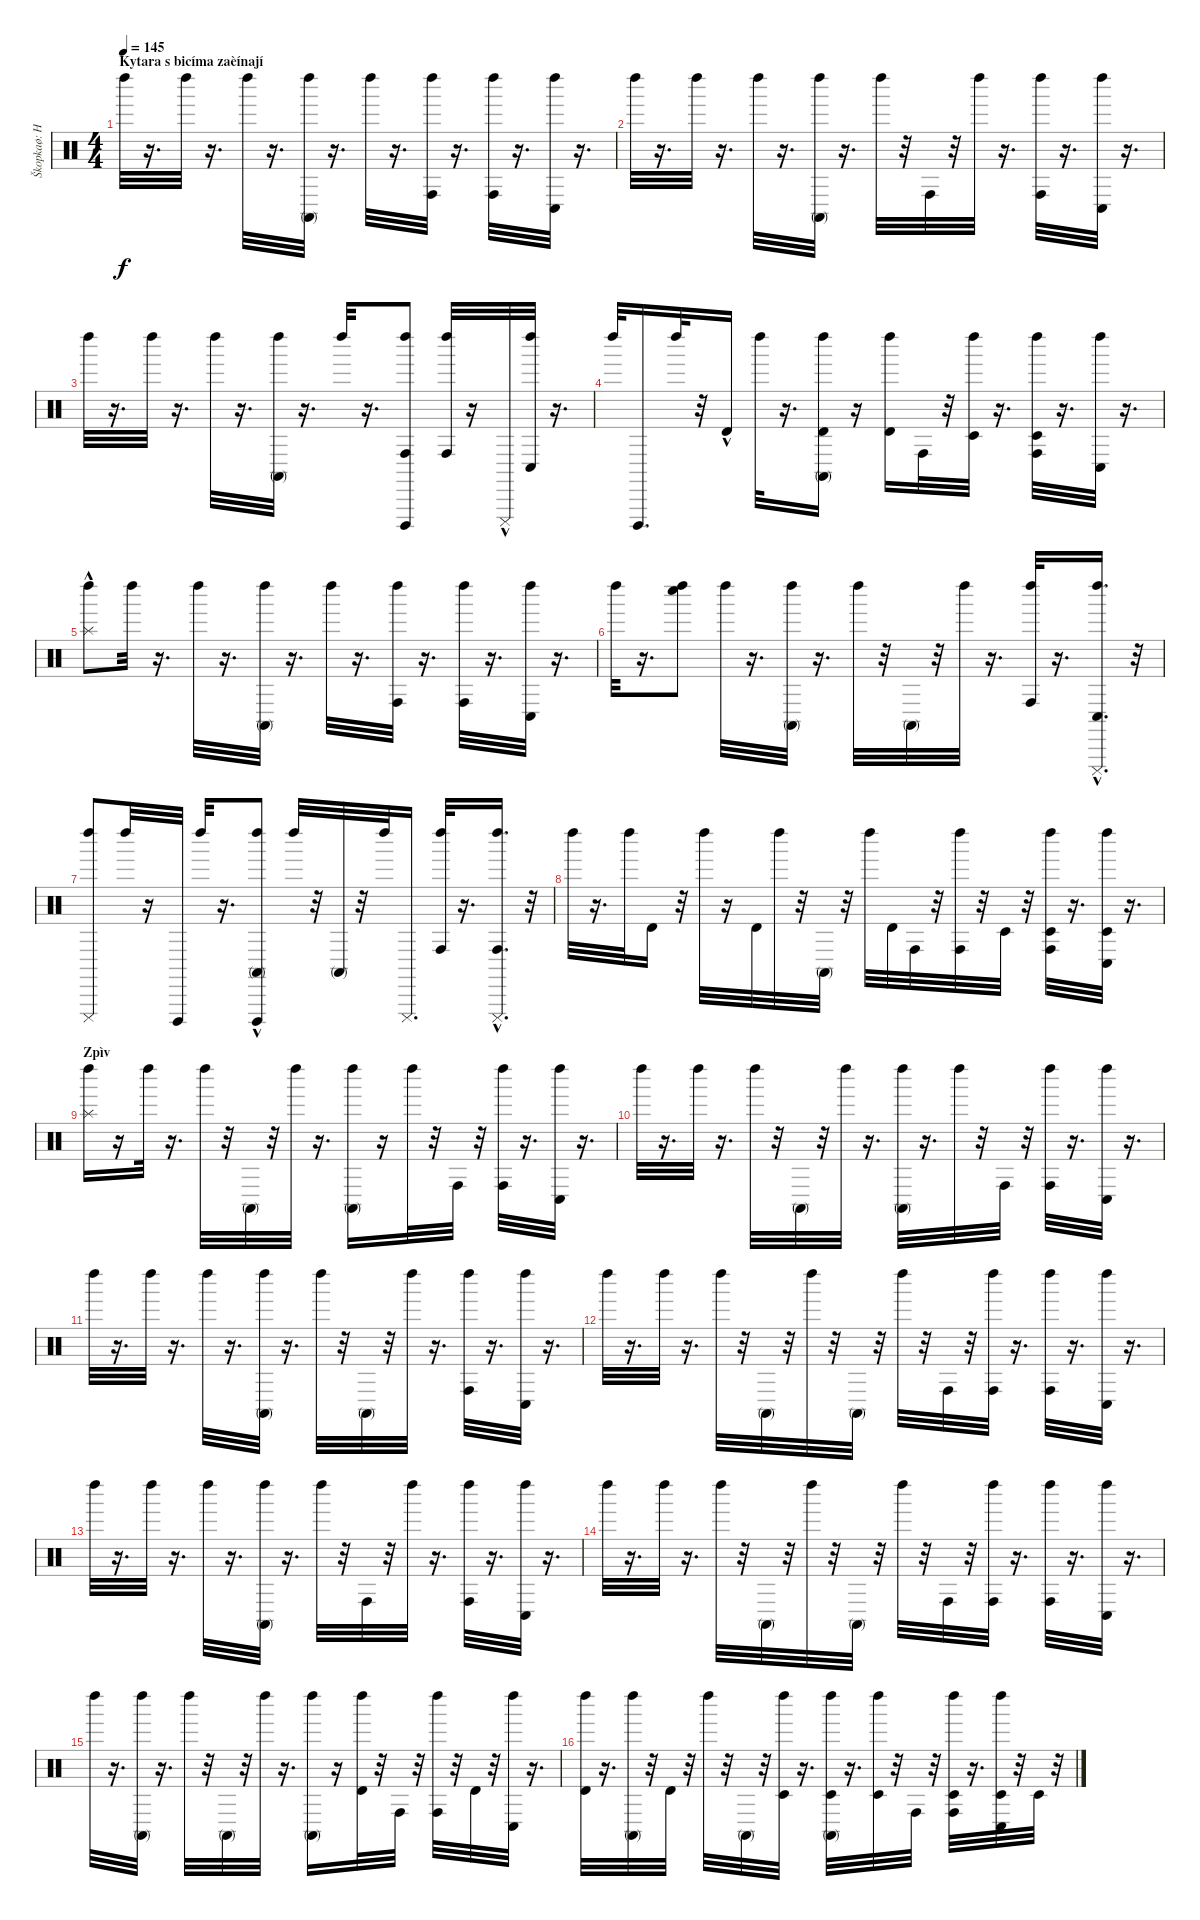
\track ("Škopkaø: Hurvajs" "Škopkaø: H") {instrument percussion}
\staff {score}
\articulation defaults
\ts (4 4)
\section ("" "Kytara s bicíma zaèínají")
\tempo 145
\clef neutral
\ks c "Left Maraca (hit)".32{dy f}
r.16{d} "Left Maraca (hit)".32 r.16{d} "Left Maraca (hit)".32 r.16{d} ("Conga high (mute)" "Left Maraca (hit)").32 r.16{d} "Left Maraca (hit)".32 r.16{d} ("Conga high (hit)" "Left Maraca (hit)").32 r.16{d} ("Conga high (hit)" "Left Maraca (hit)").32 r.16{d} ("Conga low (hit)" "Left Maraca (hit)").32 r.16{d} |
"Left Maraca (hit)".32 r.16{d} "Left Maraca (hit)".32 r.16{d} "Left Maraca (hit)".32 r.16{d} ("Conga high (mute)" "Left Maraca (hit)").32 r.16{d} "Left Maraca (hit)".32 r.32 "Conga high (hit)".32 r.32 "Left Maraca (hit)".32 r.16{d} ("Conga high (hit)" "Left Maraca (hit)").32 r.16{d} ("Conga low (hit)" "Left Maraca (hit)").32 r.16{d} |
"Left Maraca (hit)".32 r.16{d} "Left Maraca (hit)".32 r.16{d} "Left Maraca (hit)".32 r.16{d} ("Conga high (mute)" "Left Maraca (hit)").32 r.16{d} "Left Maraca (hit)".32 r.16{d} ("Conga high (hit)" "Left Maraca (hit)" "Cuica (open)").8 ("Conga high (hit)" "Left Maraca (hit)").32 r.16 "Cuica (mute)"{hac}.32 ("Conga low (hit)" "Left Maraca (hit)").32 r.16{d} |
"Left Maraca (hit)".32 "Cuica (open)".16{d} "Left Maraca (hit)".32 r.32 "Timbale high (hit)"{hac}.16 "Left Maraca (hit)".32 r.16{d} ("Conga high (mute)" "Left Maraca (hit)" "Timbale high (hit)").16 r.16 ("Left Maraca (hit)" "Timbale high (hit)").16 "Conga high (hit)".32 r.32 ("Left Maraca (hit)" "Timbale low (hit)").32 r.16{d} ("Conga high (hit)" "Left Maraca (hit)" "Timbale low (hit)").32 r.16{d} ("Conga low (hit)" "Left Maraca (hit)").32 r.16{d} |
("Left Maraca (hit)" "Splash (hit)"{hac}).8 "Left Maraca (hit)".32 r.16{d} "Left Maraca (hit)".32 r.16{d} ("Conga high (mute)" "Left Maraca (hit)").32 r.16{d} "Left Maraca (hit)".32 r.16{d} ("Conga high (hit)" "Left Maraca (hit)").32 r.16{d} ("Conga high (hit)" "Left Maraca (hit)").32 r.16{d} ("Conga low (hit)" "Left Maraca (hit)").32 r.16{d} |
"Left Maraca (hit)".32 r.16{d} ("Left Maraca (hit)" "Whistle low (hit)").8 "Left Maraca (hit)".32 r.16{d} ("Conga high (mute)" "Left Maraca (hit)").32 r.16{d} "Left Maraca (hit)".32 r.32 "Conga high (mute)".32 r.32 "Left Maraca (hit)".32 r.16{d} ("Conga high (hit)" "Left Maraca (hit)").32 r.16{d} ("Cuica (mute)"{hac} "Conga low (hit)" "Left Maraca (hit)").16{d} r.32 |
("Left Maraca (hit)" "Cuica (mute)").8 "Left Maraca (hit)".32 r.16 "Cuica (open)".32 "Left Maraca (hit)".32 r.16{d} ("Conga high (mute)" "Left Maraca (hit)" "Cuica (open)"{hac}).8 "Left Maraca (hit)".32 r.32 "Conga high (mute)".32 r.32 "Left Maraca (hit)".32 "Cuica (mute)".16{d} ("Conga high (hit)" "Left Maraca (hit)").32 r.16{d} ("Cuica (mute)"{hac} "Conga high (hit)" "Left Maraca (hit)").16{d} r.32 |
"Left Maraca (hit)".32 r.16{d} "Left Maraca (hit)".32 "Timbale high (hit)".16 r.32 "Left Maraca (hit)".32 r.16 "Timbale high (hit)".32 "Left Maraca (hit)".32 r.32 "Conga high (mute)".32 r.32 "Left Maraca (hit)".32 "Timbale high (hit)".32 "Conga high (hit)".32 r.32 ("Conga high (hit)" "Left Maraca (hit)").32 r.32 "Timbale low (hit)".32 r.32 ("Timbale low (hit)" "Conga high (hit)" "Left Maraca (hit)").32 r.16{d} ("Conga low (hit)" "Left Maraca (hit)" "Timbale low (hit)").32 r.16{d} |
\section ("" "Zpìv")
("Left Maraca (hit)" "Splash (hit)").16 r.16 "Left Maraca (hit)".32 r.16{d} "Left Maraca (hit)".32 r.32 "Conga high (mute)".32 r.32 "Left Maraca (hit)".32 r.16{d} ("Conga high (mute)" "Left Maraca (hit)").16 r.16 "Left Maraca (hit)".32 r.32 "Conga high (hit)".32 r.32 ("Conga high (hit)" "Left Maraca (hit)").32 r.16{d} ("Conga low (hit)" "Left Maraca (hit)").32 r.16{d} |
"Left Maraca (hit)".32 r.16{d} "Left Maraca (hit)".32 r.16{d} "Left Maraca (hit)".32 r.32 "Conga high (mute)".32 r.32 "Left Maraca (hit)".32 r.16{d} ("Conga high (mute)" "Left Maraca (hit)").32 r.16{d} "Left Maraca (hit)".32 r.32 "Conga high (hit)".32 r.32 ("Conga high (hit)" "Left Maraca (hit)").32 r.16{d} ("Conga low (hit)" "Left Maraca (hit)").32 r.16{d} |
"Left Maraca (hit)".32 r.16{d} "Left Maraca (hit)".32 r.16{d} "Left Maraca (hit)".32 r.16{d} ("Conga high (mute)" "Left Maraca (hit)").32 r.16{d} "Left Maraca (hit)".32 r.32 "Conga high (mute)".32 r.32 "Left Maraca (hit)".32 r.16{d} ("Conga high (hit)" "Left Maraca (hit)").32 r.16{d} ("Conga low (hit)" "Left Maraca (hit)").32 r.16{d} |
"Left Maraca (hit)".32 r.16{d} "Left Maraca (hit)".32 r.16{d} "Left Maraca (hit)".32 r.32 "Conga high (mute)".32 r.32 "Left Maraca (hit)".32 r.32 "Conga high (mute)".32 r.32 "Left Maraca (hit)".32 r.32 "Conga high (hit)".32 r.32 ("Conga high (hit)" "Left Maraca (hit)").32 r.16{d} ("Conga high (hit)" "Left Maraca (hit)").32 r.16{d} ("Conga low (hit)" "Left Maraca (hit)").32 r.16{d} |
"Left Maraca (hit)".32 r.16{d} "Left Maraca (hit)".32 r.16{d} "Left Maraca (hit)".32 r.16{d} ("Conga high (mute)" "Left Maraca (hit)").32 r.16{d} "Left Maraca (hit)".32 r.32 "Conga high (hit)".32 r.32 "Left Maraca (hit)".32 r.16{d} ("Conga high (hit)" "Left Maraca (hit)").32 r.16{d} ("Conga low (hit)" "Left Maraca (hit)").32 r.16{d} |
"Left Maraca (hit)".32 r.16{d} "Left Maraca (hit)".32 r.16{d} "Left Maraca (hit)".32 r.32 "Conga high (mute)".32 r.32 "Left Maraca (hit)".32 r.32 "Conga high (mute)".32 r.32 "Left Maraca (hit)".32 r.32 "Conga high (hit)".32 r.32 ("Conga high (hit)" "Left Maraca (hit)").32 r.16{d} ("Conga high (hit)" "Left Maraca (hit)").32 r.16{d} ("Conga low (hit)" "Left Maraca (hit)").32 r.16{d} |
"Left Maraca (hit)".32 r.16{d} ("Conga high (mute)" "Left Maraca (hit)").32 r.16{d} "Left Maraca (hit)".32 r.32 "Conga high (mute)".32 r.32 "Left Maraca (hit)".32 r.16{d} ("Conga high (mute)" "Left Maraca (hit)").16 r.16 ("Timbale high (hit)" "Left Maraca (hit)").32 r.32 "Conga high (hit)".32 r.32 ("Conga high (hit)" "Left Maraca (hit)").32 r.32 "Timbale high (hit)".32 r.32 ("Conga low (hit)" "Left Maraca (hit)").32 r.16{d} |
("Timbale high (hit)" "Left Maraca (hit)").32 r.16{d} ("Conga high (mute)" "Left Maraca (hit)").32 r.32 "Timbale high (hit)".32 r.32 "Left Maraca (hit)".32 r.32 "Conga high (mute)".32 r.32 ("Timbale low (hit)" "Left Maraca (hit)").32 r.16{d} ("Timbale low (hit)" "Conga high (mute)" "Left Maraca (hit)").32 r.16{d} ("Timbale low (hit)" "Left Maraca (hit)").32 r.32 "Conga high (hit)".32 r.32 ("Timbale low (hit)" "Conga high (hit)" "Left Maraca (hit)").32 r.16{d} ("Timbale low (hit)" "Conga low (hit)" "Left Maraca (hit)").32 r.32 "Timbale low (hit)".32 r.32
